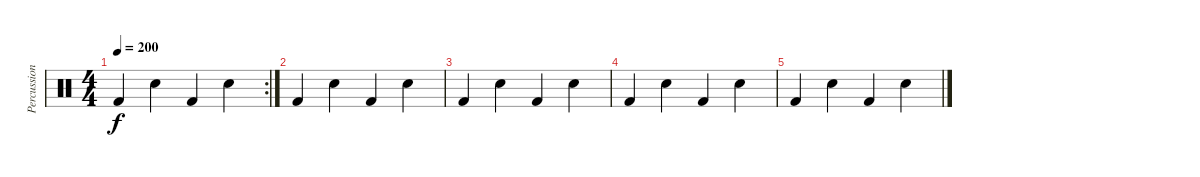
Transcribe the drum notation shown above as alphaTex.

\track ("Percussion" "Percussion") {instrument percussion}
\staff {score}
\articulation defaults
\rc 2
\ts (4 4)
\tempo 200
\clef neutral
\ks c "Kick (hit) 2".4{dy f} "Electric Snare (hit)".4 "Kick (hit) 2".4 "Electric Snare (hit)".4
|
"Kick (hit) 2".4 "Electric Snare (hit)".4 "Kick (hit) 2".4 "Electric Snare (hit)".4 |
"Kick (hit) 2".4 "Electric Snare (hit)".4 "Kick (hit) 2".4 "Electric Snare (hit)".4 |
"Kick (hit) 2".4 "Electric Snare (hit)".4 "Kick (hit) 2".4 "Electric Snare (hit)".4 |
"Kick (hit) 2".4 "Electric Snare (hit)".4 "Kick (hit) 2".4 "Electric Snare (hit)".4
